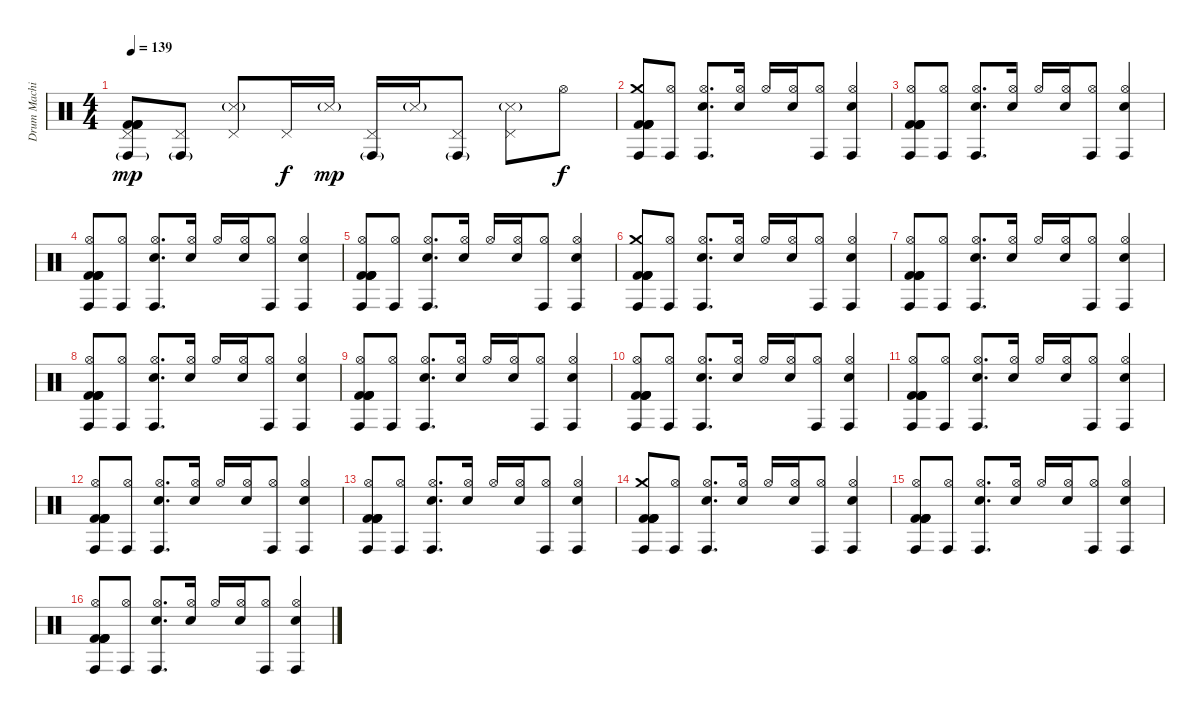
\track ("Drum Machine" "Drum Machi") {instrument percussion}
\staff {score}
\articulation defaults
\ts (4 4)
\tempo 139
\clef neutral
\ks c
("Conga high (hit)"{g} "Pedal Hi-Hat (hit)" "Kick (hit) 2" "Kick (hit) 2" "Kick (hit) 2" "Kick (hit) 2").8{dy mp} ("Conga high (hit)"{g} "Pedal Hi-Hat (hit)").8 ("Snare (side stick) 3"{g} "Pedal Hi-Hat (hit)").8 "Pedal Hi-Hat (hit)".16{dy f} "Snare (side stick) 3"{g}.16{dy mp} ("Conga high (hit)"{g} "Pedal Hi-Hat (hit)").16 "Snare (side stick) 3"{g}.16 ("Conga high (hit)"{g} "Pedal Hi-Hat (hit)").8 ("Snare (side stick) 3"{g} "Pedal Hi-Hat (hit)").8 "Hi-Hat (open)".8{dy f} |
("Conga high (hit)" "Crash medium (hit)" "Kick (hit) 2" "Kick (hit) 2" "Kick (hit) 2" "Kick (hit) 2").8 ("Conga high (hit)" "Hi-Hat (open)").8 ("Conga high (hit)" "Hi-Hat (open)" "Electric Snare (hit)").8{d} ("Hi-Hat (open)" "Electric Snare (hit)").16 "Hi-Hat (open)".16 ("Hi-Hat (open)" "Electric Snare (hit)").16 ("Conga high (hit)" "Hi-Hat (open)").8 ("Conga high (hit)" "Hi-Hat (open)" "Electric Snare (hit)").4 |
("Conga high (hit)" "Hi-Hat (open)" "Kick (hit) 2" "Kick (hit) 2" "Kick (hit) 2" "Kick (hit) 2").8 ("Conga high (hit)" "Hi-Hat (open)").8 ("Conga high (hit)" "Hi-Hat (open)" "Electric Snare (hit)").8{d} ("Hi-Hat (open)" "Electric Snare (hit)").16 "Hi-Hat (open)".16 ("Hi-Hat (open)" "Electric Snare (hit)").16 ("Conga high (hit)" "Hi-Hat (open)").8 ("Conga high (hit)" "Hi-Hat (open)" "Electric Snare (hit)").4 |
("Conga high (hit)" "Hi-Hat (open)" "Kick (hit) 2" "Kick (hit) 2" "Kick (hit) 2" "Kick (hit) 2").8 ("Conga high (hit)" "Hi-Hat (open)").8 ("Conga high (hit)" "Hi-Hat (open)" "Electric Snare (hit)").8{d} ("Hi-Hat (open)" "Electric Snare (hit)").16 "Hi-Hat (open)".16 ("Hi-Hat (open)" "Electric Snare (hit)").16 ("Conga high (hit)" "Hi-Hat (open)").8 ("Conga high (hit)" "Hi-Hat (open)" "Electric Snare (hit)").4 |
("Conga high (hit)" "Hi-Hat (open)" "Kick (hit) 2" "Kick (hit) 2" "Kick (hit) 2" "Kick (hit) 2").8 ("Conga high (hit)" "Hi-Hat (open)").8 ("Conga high (hit)" "Hi-Hat (open)" "Electric Snare (hit)").8{d} ("Hi-Hat (open)" "Electric Snare (hit)").16 "Hi-Hat (open)".16 ("Hi-Hat (open)" "Electric Snare (hit)").16 ("Conga high (hit)" "Hi-Hat (open)").8 ("Conga high (hit)" "Hi-Hat (open)" "Electric Snare (hit)").4 |
("Conga high (hit)" "Crash medium (hit)" "Kick (hit) 2" "Kick (hit) 2" "Kick (hit) 2" "Kick (hit) 2").8 ("Conga high (hit)" "Hi-Hat (open)").8 ("Conga high (hit)" "Hi-Hat (open)" "Electric Snare (hit)").8{d} ("Hi-Hat (open)" "Electric Snare (hit)").16 "Hi-Hat (open)".16 ("Hi-Hat (open)" "Electric Snare (hit)").16 ("Conga high (hit)" "Hi-Hat (open)").8 ("Conga high (hit)" "Hi-Hat (open)" "Electric Snare (hit)").4 |
("Conga high (hit)" "Hi-Hat (open)" "Kick (hit) 2" "Kick (hit) 2" "Kick (hit) 2" "Kick (hit) 2").8 ("Conga high (hit)" "Hi-Hat (open)").8 ("Conga high (hit)" "Hi-Hat (open)" "Electric Snare (hit)").8{d} ("Hi-Hat (open)" "Electric Snare (hit)").16 "Hi-Hat (open)".16 ("Hi-Hat (open)" "Electric Snare (hit)").16 ("Conga high (hit)" "Hi-Hat (open)").8 ("Conga high (hit)" "Hi-Hat (open)" "Electric Snare (hit)").4 |
("Conga high (hit)" "Hi-Hat (open)" "Kick (hit) 2" "Kick (hit) 2" "Kick (hit) 2" "Kick (hit) 2").8 ("Conga high (hit)" "Hi-Hat (open)").8 ("Conga high (hit)" "Hi-Hat (open)" "Electric Snare (hit)").8{d} ("Hi-Hat (open)" "Electric Snare (hit)").16 "Hi-Hat (open)".16 ("Hi-Hat (open)" "Electric Snare (hit)").16 ("Conga high (hit)" "Hi-Hat (open)").8 ("Conga high (hit)" "Hi-Hat (open)" "Electric Snare (hit)").4 |
("Conga high (hit)" "Hi-Hat (open)" "Kick (hit) 2" "Kick (hit) 2" "Kick (hit) 2" "Kick (hit) 2").8 ("Conga high (hit)" "Hi-Hat (open)").8 ("Conga high (hit)" "Hi-Hat (open)" "Electric Snare (hit)").8{d} ("Hi-Hat (open)" "Electric Snare (hit)").16 "Hi-Hat (open)".16 ("Hi-Hat (open)" "Electric Snare (hit)").16 ("Conga high (hit)" "Hi-Hat (open)").8 ("Conga high (hit)" "Hi-Hat (open)" "Electric Snare (hit)").4 |
("Conga high (hit)" "Hi-Hat (open)" "Kick (hit) 2" "Kick (hit) 2" "Kick (hit) 2" "Kick (hit) 2").8 ("Conga high (hit)" "Hi-Hat (open)").8 ("Conga high (hit)" "Hi-Hat (open)" "Electric Snare (hit)").8{d} ("Hi-Hat (open)" "Electric Snare (hit)").16 "Hi-Hat (open)".16 ("Hi-Hat (open)" "Electric Snare (hit)").16 ("Conga high (hit)" "Hi-Hat (open)").8 ("Conga high (hit)" "Hi-Hat (open)" "Electric Snare (hit)").4 |
("Conga high (hit)" "Hi-Hat (open)" "Kick (hit) 2" "Kick (hit) 2" "Kick (hit) 2" "Kick (hit) 2").8 ("Conga high (hit)" "Hi-Hat (open)").8 ("Conga high (hit)" "Hi-Hat (open)" "Electric Snare (hit)").8{d} ("Hi-Hat (open)" "Electric Snare (hit)").16 "Hi-Hat (open)".16 ("Hi-Hat (open)" "Electric Snare (hit)").16 ("Conga high (hit)" "Hi-Hat (open)").8 ("Conga high (hit)" "Hi-Hat (open)" "Electric Snare (hit)").4 |
("Conga high (hit)" "Hi-Hat (open)" "Kick (hit) 2" "Kick (hit) 2" "Kick (hit) 2" "Kick (hit) 2").8 ("Conga high (hit)" "Hi-Hat (open)").8 ("Conga high (hit)" "Hi-Hat (open)" "Electric Snare (hit)").8{d} ("Hi-Hat (open)" "Electric Snare (hit)").16 "Hi-Hat (open)".16 ("Hi-Hat (open)" "Electric Snare (hit)").16 ("Conga high (hit)" "Hi-Hat (open)").8 ("Conga high (hit)" "Hi-Hat (open)" "Electric Snare (hit)").4 |
("Conga high (hit)" "Hi-Hat (open)" "Kick (hit) 2" "Kick (hit) 2" "Kick (hit) 2" "Kick (hit) 2").8 ("Conga high (hit)" "Hi-Hat (open)").8 ("Conga high (hit)" "Hi-Hat (open)" "Electric Snare (hit)").8{d} ("Hi-Hat (open)" "Electric Snare (hit)").16 "Hi-Hat (open)".16 ("Hi-Hat (open)" "Electric Snare (hit)").16 ("Conga high (hit)" "Hi-Hat (open)").8 ("Conga high (hit)" "Hi-Hat (open)" "Electric Snare (hit)").4 |
("Conga high (hit)" "Crash medium (hit)" "Kick (hit) 2" "Kick (hit) 2" "Kick (hit) 2" "Kick (hit) 2").8 ("Conga high (hit)" "Hi-Hat (open)").8 ("Conga high (hit)" "Hi-Hat (open)" "Electric Snare (hit)").8{d} ("Hi-Hat (open)" "Electric Snare (hit)").16 "Hi-Hat (open)".16 ("Hi-Hat (open)" "Electric Snare (hit)").16 ("Conga high (hit)" "Hi-Hat (open)").8 ("Conga high (hit)" "Hi-Hat (open)" "Electric Snare (hit)").4 |
("Conga high (hit)" "Hi-Hat (open)" "Kick (hit) 2" "Kick (hit) 2" "Kick (hit) 2" "Kick (hit) 2").8 ("Conga high (hit)" "Hi-Hat (open)").8 ("Conga high (hit)" "Hi-Hat (open)" "Electric Snare (hit)").8{d} ("Hi-Hat (open)" "Electric Snare (hit)").16 "Hi-Hat (open)".16 ("Hi-Hat (open)" "Electric Snare (hit)").16 ("Conga high (hit)" "Hi-Hat (open)").8 ("Conga high (hit)" "Hi-Hat (open)" "Electric Snare (hit)").4 |
("Conga high (hit)" "Hi-Hat (open)" "Kick (hit) 2" "Kick (hit) 2" "Kick (hit) 2" "Kick (hit) 2").8 ("Conga high (hit)" "Hi-Hat (open)").8 ("Conga high (hit)" "Hi-Hat (open)" "Electric Snare (hit)").8{d} ("Hi-Hat (open)" "Electric Snare (hit)").16 "Hi-Hat (open)".16 ("Hi-Hat (open)" "Electric Snare (hit)").16 ("Conga high (hit)" "Hi-Hat (open)").8 ("Conga high (hit)" "Hi-Hat (open)" "Electric Snare (hit)").4
